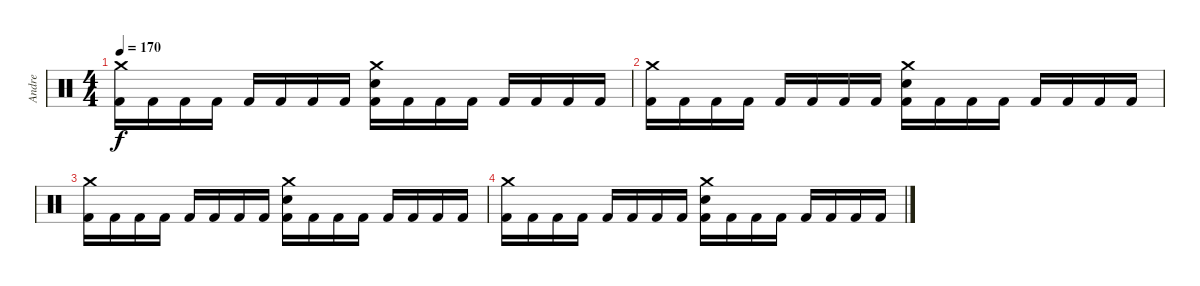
\track ("Andre" "Andre") {instrument percussion}
\staff {score}
\articulation defaults
\ts (4 4)
\tempo 170
\clef neutral
\ks c
("Crash medium (hit)" "Kick (hit) 2").16{dy f} "Kick (hit) 2".16 "Kick (hit) 2".16 "Kick (hit) 2".16 "Kick (hit) 2".16 "Kick (hit) 2".16 "Kick (hit) 2".16 "Kick (hit) 2".16 ("Crash medium (hit)" "Snare (hit) 2" "Kick (hit) 2").16 "Kick (hit) 2".16 "Kick (hit) 2".16 "Kick (hit) 2".16 "Kick (hit) 2".16 "Kick (hit) 2".16 "Kick (hit) 2".16 "Kick (hit) 2".16 |
("Crash medium (hit)" "Kick (hit) 2").16 "Kick (hit) 2".16 "Kick (hit) 2".16 "Kick (hit) 2".16 "Kick (hit) 2".16 "Kick (hit) 2".16 "Kick (hit) 2".16 "Kick (hit) 2".16 ("Crash medium (hit)" "Snare (hit) 2" "Kick (hit) 2").16 "Kick (hit) 2".16 "Kick (hit) 2".16 "Kick (hit) 2".16 "Kick (hit) 2".16 "Kick (hit) 2".16 "Kick (hit) 2".16 "Kick (hit) 2".16 |
("Crash medium (hit)" "Kick (hit) 2").16 "Kick (hit) 2".16 "Kick (hit) 2".16 "Kick (hit) 2".16 "Kick (hit) 2".16 "Kick (hit) 2".16 "Kick (hit) 2".16 "Kick (hit) 2".16 ("Crash medium (hit)" "Snare (hit) 2" "Kick (hit) 2").16 "Kick (hit) 2".16 "Kick (hit) 2".16 "Kick (hit) 2".16 "Kick (hit) 2".16 "Kick (hit) 2".16 "Kick (hit) 2".16 "Kick (hit) 2".16 |
("Crash medium (hit)" "Kick (hit) 2").16 "Kick (hit) 2".16 "Kick (hit) 2".16 "Kick (hit) 2".16 "Kick (hit) 2".16 "Kick (hit) 2".16 "Kick (hit) 2".16 "Kick (hit) 2".16 ("Crash medium (hit)" "Snare (hit) 2" "Kick (hit) 2").16 "Kick (hit) 2".16 "Kick (hit) 2".16 "Kick (hit) 2".16 "Kick (hit) 2".16 "Kick (hit) 2".16 "Kick (hit) 2".16 "Kick (hit) 2".16
